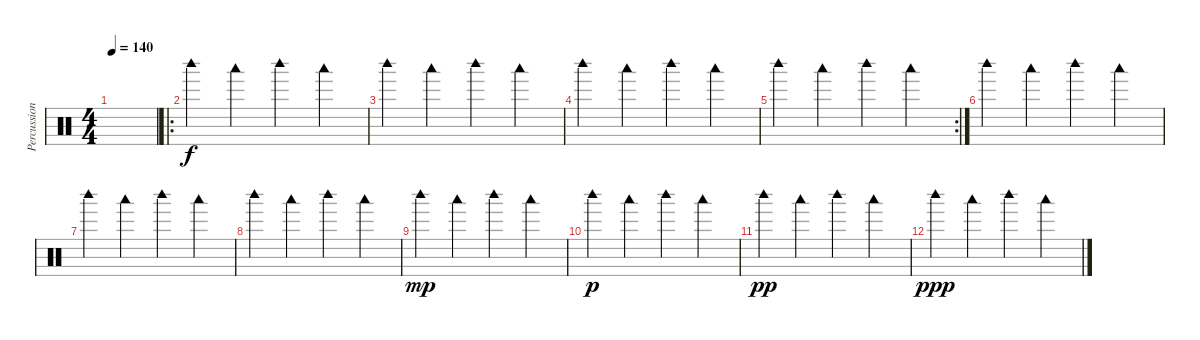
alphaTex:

\track ("Percussions" "Percussion") {instrument percussion}
\staff {score}
\articulation defaults
\ts (4 4)
\tempo 140
\clef neutral
\ks c
|
\ro "Woodblock high (hit)".4 "Woodblock low (hit)".4 "Woodblock high (hit)".4 "Woodblock low (hit)".4
|
"Woodblock high (hit)".4 "Woodblock low (hit)".4 "Woodblock high (hit)".4 "Woodblock low (hit)".4 |
"Woodblock high (hit)".4 "Woodblock low (hit)".4 "Woodblock high (hit)".4 "Woodblock low (hit)".4 |
\rc 2 "Woodblock high (hit)".4 "Woodblock low (hit)".4 "Woodblock high (hit)".4 "Woodblock low (hit)".4
|
"Woodblock high (hit)".4 "Woodblock low (hit)".4 "Woodblock high (hit)".4 "Woodblock low (hit)".4 |
"Woodblock high (hit)".4 "Woodblock low (hit)".4 "Woodblock high (hit)".4 "Woodblock low (hit)".4 |
"Woodblock high (hit)".4 "Woodblock low (hit)".4 "Woodblock high (hit)".4 "Woodblock low (hit)".4 |
"Woodblock high (hit)".4{dy mp} "Woodblock low (hit)".4 "Woodblock high (hit)".4 "Woodblock low (hit)".4 |
"Woodblock high (hit)".4{dy p} "Woodblock low (hit)".4 "Woodblock high (hit)".4 "Woodblock low (hit)".4 |
"Woodblock high (hit)".4{dy pp} "Woodblock low (hit)".4 "Woodblock high (hit)".4 "Woodblock low (hit)".4 |
"Woodblock high (hit)".4{dy ppp} "Woodblock low (hit)".4 "Woodblock high (hit)".4 "Woodblock low (hit)".4
